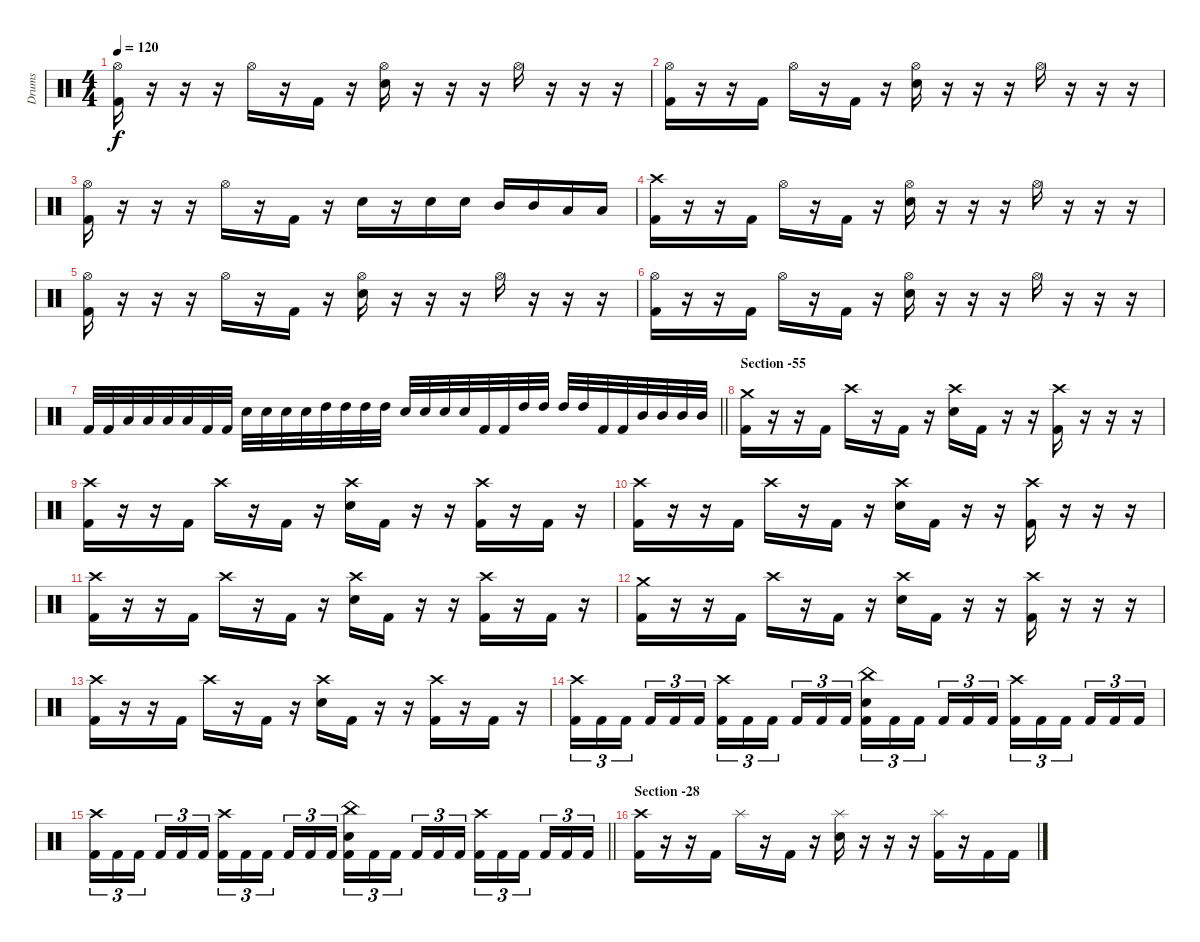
\track ("Drums" "Drums") {instrument percussion}
\staff {score}
\articulation defaults
\ts (4 4)
\tempo 120
\clef neutral
\ks c
("Hi-Hat (open)" "Kick (hit) 2").16{dy f} r.16 r.16 r.16 "Hi-Hat (open)".16 r.16 "Kick (hit) 2".16 r.16 ("Hi-Hat (open)" "Snare (hit) 2").16 r.16 r.16 r.16 "Hi-Hat (open)".16 r.16 r.16 r.16 |
("Hi-Hat (open)" "Kick (hit) 2").16 r.16 r.16 "Kick (hit) 2".16 "Hi-Hat (open)".16 r.16 "Kick (hit) 2".16 r.16 ("Hi-Hat (open)" "Snare (hit) 2").16 r.16 r.16 r.16 "Hi-Hat (open)".16 r.16 r.16 r.16 |
("Hi-Hat (open)" "Kick (hit) 2").16 r.16 r.16 r.16 "Hi-Hat (open)".16 r.16 "Kick (hit) 2".16 r.16 "Snare (hit) 2".16 r.16 "Snare (hit) 2".16 "Snare (hit) 2".16 "Mid Tom (hit)".16 "Mid Tom (hit)".16 "Low Tom (hit)".16 "Low Tom (hit)".16 |
("Crash high (hit)" "Kick (hit) 2").16 r.16 r.16 "Kick (hit) 2".16 "Hi-Hat (open)".16 r.16 "Kick (hit) 2".16 r.16 ("Hi-Hat (open)" "Snare (hit) 2").16 r.16 r.16 r.16 "Hi-Hat (open)".16 r.16 r.16 r.16 |
("Hi-Hat (open)" "Kick (hit) 2").16 r.16 r.16 r.16 "Hi-Hat (open)".16 r.16 "Kick (hit) 2".16 r.16 ("Hi-Hat (open)" "Snare (hit) 2").16 r.16 r.16 r.16 "Hi-Hat (open)".16 r.16 r.16 r.16 |
("Hi-Hat (open)" "Kick (hit) 2").16 r.16 r.16 "Kick (hit) 2".16 "Hi-Hat (open)".16 r.16 "Kick (hit) 2".16 r.16 ("Hi-Hat (open)" "Snare (hit) 2").16 r.16 r.16 r.16 "Hi-Hat (open)".16 r.16 r.16 r.16 |
\barLineRight lightlight "Kick (hit) 2".32 "Kick (hit) 2".32 "Low Tom (hit)".32 "Low Tom (hit)".32 "Low Tom (hit)".32 "Low Tom (hit)".32 "Kick (hit) 2".32 "Kick (hit) 2".32 "Snare (hit) 2".32 "Snare (hit) 2".32 "Snare (hit) 2".32 "Snare (hit) 2".32 "High Tom (hit)".32 "High Tom (hit)".32 "High Tom (hit)".32 "High Tom (hit)".32 "Snare (hit) 2".32 "Snare (hit) 2".32 "Snare (hit) 2".32 "Snare (hit) 2".32 "Kick (hit) 2".32 "Kick (hit) 2".32 "High Tom (hit)".32 "High Tom (hit)".32 "High Tom (hit)".32 "High Tom (hit)".32 "Kick (hit) 2".32 "Kick (hit) 2".32 "Mid Tom (hit)".32 "Mid Tom (hit)".32 "Mid Tom (hit)".32 "Mid Tom (hit)".32
|
\section ("" "Section -55")
("Crash medium (hit)" "Kick (hit) 2").16 r.16 r.16 "Kick (hit) 2".16 "Crash high (hit)".16 r.16 "Kick (hit) 2".16 r.16 ("Crash high (hit)" "Snare (hit) 2").16 "Kick (hit) 2".16 r.16 r.16 ("Crash high (hit)" "Kick (hit) 2").16 r.16 r.16 r.16 |
("Crash high (hit)" "Kick (hit) 2").16 r.16 r.16 "Kick (hit) 2".16 "Crash high (hit)".16 r.16 "Kick (hit) 2".16 r.16 ("Crash high (hit)" "Snare (hit) 2").16 "Kick (hit) 2".16 r.16 r.16 ("Crash high (hit)" "Kick (hit) 2").16 r.16 "Kick (hit) 2".16 r.16 |
("Crash high (hit)" "Kick (hit) 2").16 r.16 r.16 "Kick (hit) 2".16 "Crash high (hit)".16 r.16 "Kick (hit) 2".16 r.16 ("Crash high (hit)" "Snare (hit) 2").16 "Kick (hit) 2".16 r.16 r.16 ("Crash high (hit)" "Kick (hit) 2").16 r.16 r.16 r.16 |
("Crash high (hit)" "Kick (hit) 2").16 r.16 r.16 "Kick (hit) 2".16 "Crash high (hit)".16 r.16 "Kick (hit) 2".16 r.16 ("Crash high (hit)" "Snare (hit) 2").16 "Kick (hit) 2".16 r.16 r.16 ("Crash high (hit)" "Kick (hit) 2").16 r.16 "Kick (hit) 2".16 r.16 |
("Crash medium (hit)" "Kick (hit) 2").16 r.16 r.16 "Kick (hit) 2".16 "Crash high (hit)".16 r.16 "Kick (hit) 2".16 r.16 ("Crash high (hit)" "Snare (hit) 2").16 "Kick (hit) 2".16 r.16 r.16 ("Crash high (hit)" "Kick (hit) 2").16 r.16 r.16 r.16 |
("Crash high (hit)" "Kick (hit) 2").16 r.16 r.16 "Kick (hit) 2".16 "Crash high (hit)".16 r.16 "Kick (hit) 2".16 r.16 ("Crash high (hit)" "Snare (hit) 2").16 "Kick (hit) 2".16 r.16 r.16 ("Crash high (hit)" "Kick (hit) 2").16 r.16 "Kick (hit) 2".16 r.16 |
("Crash high (hit)" "Kick (hit) 2").16{tu (3 2)} "Kick (hit) 2".16{tu (3 2)} "Kick (hit) 2".16{tu (3 2) beam splitsecondary} "Kick (hit) 2".16{tu (3 2)} "Kick (hit) 2".16{tu (3 2)} "Kick (hit) 2".16{tu (3 2)} ("Crash high (hit)" "Kick (hit) 2").16{tu (3 2)} "Kick (hit) 2".16{tu (3 2)} "Kick (hit) 2".16{tu (3 2) beam splitsecondary} "Kick (hit) 2".16{tu (3 2)} "Kick (hit) 2".16{tu (3 2)} "Kick (hit) 2".16{tu (3 2)} ("China (hit)" "Snare (hit) 2" "Kick (hit) 2").16{tu (3 2)} "Kick (hit) 2".16{tu (3 2)} "Kick (hit) 2".16{tu (3 2) beam splitsecondary} "Kick (hit) 2".16{tu (3 2)} "Kick (hit) 2".16{tu (3 2)} "Kick (hit) 2".16{tu (3 2)} ("Crash high (hit)" "Kick (hit) 2").16{tu (3 2)} "Kick (hit) 2".16{tu (3 2)} "Kick (hit) 2".16{tu (3 2) beam splitsecondary} "Kick (hit) 2".16{tu (3 2)} "Kick (hit) 2".16{tu (3 2)} "Kick (hit) 2".16{tu (3 2)} |
\barLineRight lightlight
("Crash high (hit)" "Kick (hit) 2").16{tu (3 2)} "Kick (hit) 2".16{tu (3 2)} "Kick (hit) 2".16{tu (3 2) beam splitsecondary} "Kick (hit) 2".16{tu (3 2)} "Kick (hit) 2".16{tu (3 2)} "Kick (hit) 2".16{tu (3 2)} ("Crash high (hit)" "Kick (hit) 2").16{tu (3 2)} "Kick (hit) 2".16{tu (3 2)} "Kick (hit) 2".16{tu (3 2) beam splitsecondary} "Kick (hit) 2".16{tu (3 2)} "Kick (hit) 2".16{tu (3 2)} "Kick (hit) 2".16{tu (3 2)} ("China (hit)" "Snare (hit) 2" "Kick (hit) 2").16{tu (3 2)} "Kick (hit) 2".16{tu (3 2)} "Kick (hit) 2".16{tu (3 2) beam splitsecondary} "Kick (hit) 2".16{tu (3 2)} "Kick (hit) 2".16{tu (3 2)} "Kick (hit) 2".16{tu (3 2)} ("Crash high (hit)" "Kick (hit) 2").16{tu (3 2)} "Kick (hit) 2".16{tu (3 2)} "Kick (hit) 2".16{tu (3 2) beam splitsecondary} "Kick (hit) 2".16{tu (3 2)} "Kick (hit) 2".16{tu (3 2)} "Kick (hit) 2".16{tu (3 2)} |
\section ("" "Section -28")
("Crash high (hit)" "Kick (hit) 2").16 r.16 r.16 "Kick (hit) 2".16 "Splash (hit)".16 r.16 "Kick (hit) 2".16 r.16 ("Splash (hit)" "Snare (hit) 2").16 r.16 r.16 r.16 ("Splash (hit)" "Kick (hit) 2").16 r.16 "Kick (hit) 2".16 "Kick (hit) 2".16
